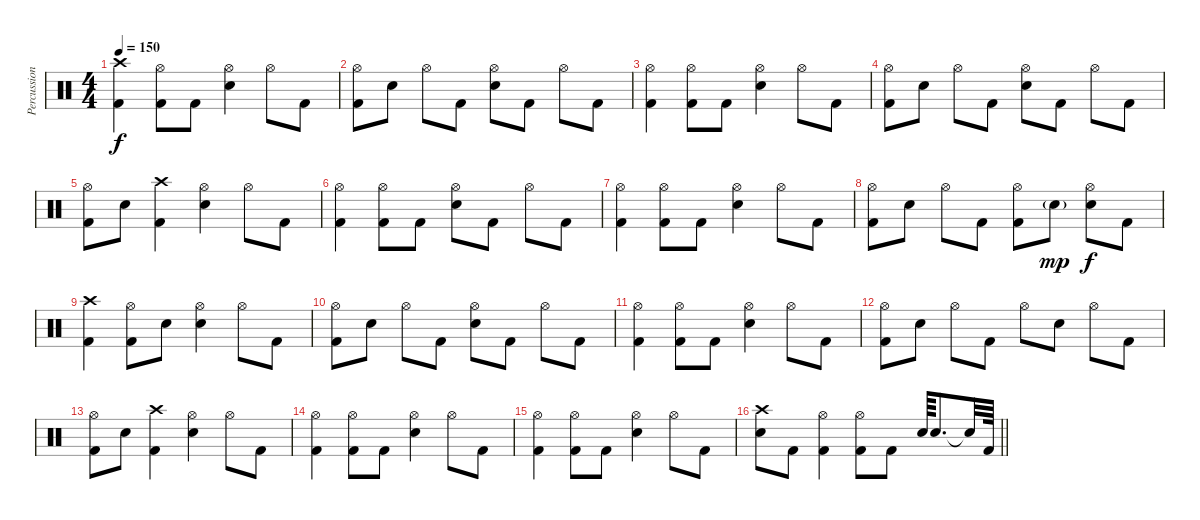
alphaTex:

\track ("Percussion" "Percussion") {instrument percussion}
\staff {score}
\articulation defaults
\ts (4 4)
\tempo 150
\clef neutral
\ks c
("Crash high (hit)" "Kick (hit) 2").4{dy f} ("Hi-Hat (open)" "Kick (hit) 2").8 "Kick (hit) 2".8 ("Hi-Hat (open)" "Snare (hit) 2").4 "Hi-Hat (open)".8 "Kick (hit) 2".8 |
("Hi-Hat (open)" "Kick (hit) 2").8 "Snare (hit) 2".8 "Hi-Hat (open)".8 "Kick (hit) 2".8 ("Hi-Hat (open)" "Snare (hit) 2").8 "Kick (hit) 2".8 "Hi-Hat (open)".8 "Kick (hit) 2".8 |
("Hi-Hat (open)" "Kick (hit) 2").4 ("Hi-Hat (open)" "Kick (hit) 2").8 "Kick (hit) 2".8 ("Hi-Hat (open)" "Snare (hit) 2").4 "Hi-Hat (open)".8 "Kick (hit) 2".8 |
("Hi-Hat (open)" "Kick (hit) 2").8 "Snare (hit) 2".8 "Hi-Hat (open)".8 "Kick (hit) 2".8 ("Hi-Hat (open)" "Snare (hit) 2").8 "Kick (hit) 2".8 "Hi-Hat (open)".8 "Kick (hit) 2".8 |
("Hi-Hat (open)" "Kick (hit) 2").8 "Snare (hit) 2".8 ("Crash high (hit)" "Kick (hit) 2").4 ("Hi-Hat (open)" "Snare (hit) 2").4 "Hi-Hat (open)".8 "Kick (hit) 2".8 |
("Hi-Hat (open)" "Kick (hit) 2").4 ("Hi-Hat (open)" "Kick (hit) 2").8 "Kick (hit) 2".8 ("Hi-Hat (open)" "Snare (hit) 2").8 "Kick (hit) 2".8 "Hi-Hat (open)".8 "Kick (hit) 2".8 |
("Hi-Hat (open)" "Kick (hit) 2").4 ("Hi-Hat (open)" "Kick (hit) 2").8 "Kick (hit) 2".8 ("Hi-Hat (open)" "Snare (hit) 2").4 "Hi-Hat (open)".8 "Kick (hit) 2".8 |
("Hi-Hat (open)" "Kick (hit) 2").8 "Snare (hit) 2".8 "Hi-Hat (open)".8 "Kick (hit) 2".8 ("Hi-Hat (open)" "Kick (hit) 2").8 "Snare (hit) 2"{g}.8{dy mp} ("Hi-Hat (open)" "Snare (hit) 2").8{dy f} "Kick (hit) 2".8 |
("Crash high (hit)" "Kick (hit) 2").4 ("Hi-Hat (open)" "Kick (hit) 2").8 "Snare (hit)".8 ("Hi-Hat (open)" "Snare (hit) 2").4 "Hi-Hat (open)".8 "Kick (hit) 2".8 |
("Hi-Hat (open)" "Kick (hit) 2").8 "Snare (hit) 2".8 "Hi-Hat (open)".8 "Kick (hit) 2".8 ("Hi-Hat (open)" "Snare (hit) 2").8 "Kick (hit) 2".8 "Hi-Hat (open)".8 "Kick (hit) 2".8 |
("Hi-Hat (open)" "Kick (hit) 2").4 ("Hi-Hat (open)" "Kick (hit) 2").8 "Kick (hit) 2".8 ("Hi-Hat (open)" "Snare (hit) 2").4 "Hi-Hat (open)".8 "Kick (hit) 2".8 |
("Hi-Hat (open)" "Kick (hit) 2").8 "Snare (hit) 2".8 "Hi-Hat (open)".8 "Kick (hit) 2".8 "Hi-Hat (open)".8 "Snare (hit) 2".8 "Hi-Hat (open)".8 "Kick (hit) 2".8 |
("Hi-Hat (open)" "Kick (hit) 2").8 "Snare (hit) 2".8 ("Crash high (hit)" "Kick (hit) 2").4 ("Hi-Hat (open)" "Snare (hit) 2").4 "Hi-Hat (open)".8 "Kick (hit) 2".8 |
("Hi-Hat (open)" "Kick (hit) 2").4 ("Hi-Hat (open)" "Kick (hit) 2").8 "Kick (hit) 2".8 ("Hi-Hat (open)" "Snare (hit) 2").4 "Hi-Hat (open)".8 "Kick (hit) 2".8 |
("Hi-Hat (open)" "Kick (hit) 2").4 ("Hi-Hat (open)" "Kick (hit) 2").8 "Kick (hit) 2".8 ("Hi-Hat (open)" "Snare (hit) 2").4 "Hi-Hat (open)".8 "Kick (hit) 2".8 |
\barLineRight lightlight
("Crash high (hit)" "Snare (hit) 2").8 "Kick (hit) 2".8 ("Hi-Hat (open)" "Kick (hit) 2").4 ("Hi-Hat (open)" "Kick (hit) 2").8 "Kick (hit) 2".8 "Snare (hit) 2".64 "Snare (hit) 2".8{d} "Snare (hit)"{t}.32 "Kick (hit) 2".64
